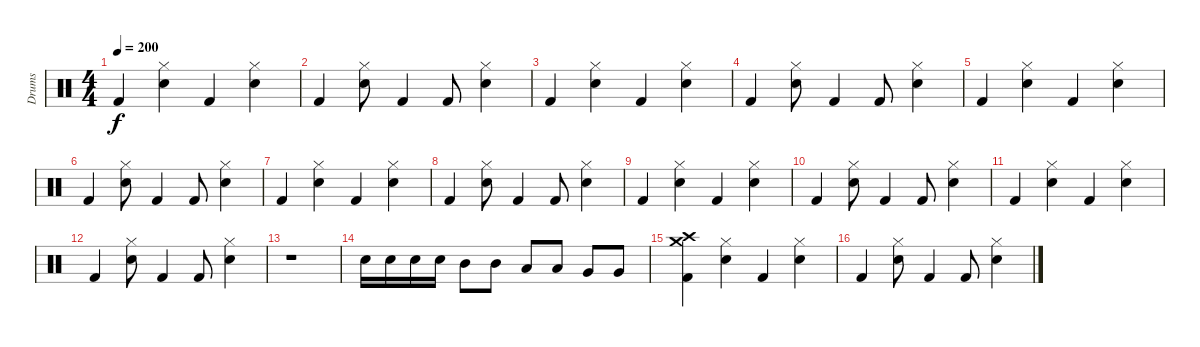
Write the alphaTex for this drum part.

\track ("Drums" "Drums") {instrument percussion}
\staff {score}
\articulation defaults
\ts (4 4)
\tempo 200
\clef neutral
\ks c "Kick (hit) 2".4{dy f}
("Snare (hit) 2" "Hi-Hat (closed)").4 "Kick (hit) 2".4 ("Snare (hit) 2" "Hi-Hat (closed)").4 |
"Kick (hit) 2".4 ("Snare (hit) 2" "Hi-Hat (closed)").8 "Kick (hit) 2".4 "Kick (hit) 2".8 ("Snare (hit) 2" "Hi-Hat (closed)").4 |
"Kick (hit) 2".4 ("Snare (hit) 2" "Hi-Hat (closed)").4 "Kick (hit) 2".4 ("Snare (hit) 2" "Hi-Hat (closed)").4 |
"Kick (hit) 2".4 ("Snare (hit) 2" "Hi-Hat (closed)").8 "Kick (hit) 2".4 "Kick (hit) 2".8 ("Snare (hit) 2" "Hi-Hat (closed)").4 |
"Kick (hit) 2".4 ("Snare (hit) 2" "Hi-Hat (closed)").4 "Kick (hit) 2".4 ("Snare (hit) 2" "Hi-Hat (closed)").4 |
"Kick (hit) 2".4 ("Snare (hit) 2" "Hi-Hat (closed)").8 "Kick (hit) 2".4 "Kick (hit) 2".8 ("Snare (hit) 2" "Hi-Hat (closed)").4 |
"Kick (hit) 2".4 ("Snare (hit) 2" "Hi-Hat (closed)").4 "Kick (hit) 2".4 ("Snare (hit) 2" "Hi-Hat (closed)").4 |
"Kick (hit) 2".4 ("Snare (hit) 2" "Hi-Hat (closed)").8 "Kick (hit) 2".4 "Kick (hit) 2".8 ("Snare (hit) 2" "Hi-Hat (closed)").4 |
"Kick (hit) 2".4 ("Snare (hit) 2" "Hi-Hat (closed)").4 "Kick (hit) 2".4 ("Snare (hit) 2" "Hi-Hat (closed)").4 |
"Kick (hit) 2".4 ("Snare (hit) 2" "Hi-Hat (closed)").8 "Kick (hit) 2".4 "Kick (hit) 2".8 ("Snare (hit) 2" "Hi-Hat (closed)").4 |
"Kick (hit) 2".4 ("Snare (hit) 2" "Hi-Hat (closed)").4 "Kick (hit) 2".4 ("Snare (hit) 2" "Hi-Hat (closed)").4 |
"Kick (hit) 2".4 ("Snare (hit) 2" "Hi-Hat (closed)").8 "Kick (hit) 2".4 "Kick (hit) 2".8 ("Snare (hit) 2" "Hi-Hat (closed)").4 |
r.1 |
"Snare (hit) 2".16 "Snare (hit) 2".16 "Snare (hit) 2".16 "Snare (hit) 2".16 "Mid Tom (hit)".8 "Mid Tom (hit)".8 "Low Tom (hit)".8 "Low Tom (hit)".8 "Very Low Tom (hit)".8 "Very Low Tom (hit)".8 |
("Kick (hit) 2" "Crash high (hit)" "Crash medium (hit)").4 ("Snare (hit) 2" "Hi-Hat (closed)").4 "Kick (hit) 2".4 ("Snare (hit) 2" "Hi-Hat (closed)").4 |
"Kick (hit) 2".4 ("Snare (hit) 2" "Hi-Hat (closed)").8 "Kick (hit) 2".4 "Kick (hit) 2".8 ("Snare (hit) 2" "Hi-Hat (closed)").4
